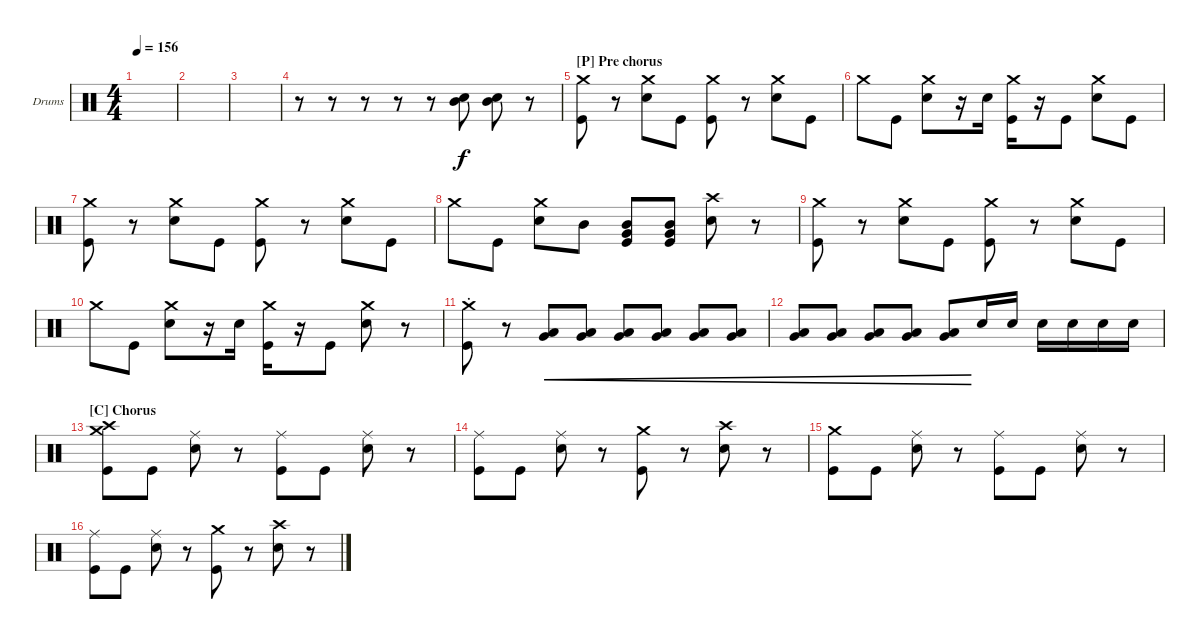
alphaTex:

\defaultSystemsLayout 4
\bracketExtendMode groupsimilarinstruments
\firstSystemTrackNameOrientation horizontal
\otherSystemsTrackNameOrientation horizontal
\track ("Drumkit" "Drums") {instrument percussion}
\staff {score}
\articulation defaults
\ts (4 4)
\tempo 156
\clef neutral
\ks c
|
|
|
r.8 r.8 r.8 r.8 r.8 ("Snare (hit) 2" "Mid Tom (hit)").8 ("Snare (hit) 2" "Mid Tom (hit)").8 r.8 |
\section ("P" "Pre chorus")
("Kick (hit)" "Crash medium (hit)").8 r.8 ("Snare (hit) 2" "Crash medium (hit)").8 "Kick (hit)".8 ("Kick (hit)" "Crash medium (hit)").8 r.8 ("Snare (hit) 2" "Crash medium (hit)").8 "Kick (hit)".8 |
"Crash medium (hit)".8 "Kick (hit)".8 ("Snare (hit) 2" "Crash medium (hit)").8 r.16 "Snare (hit) 2".16 ("Kick (hit)" "Crash medium (hit)").16 r.16 "Kick (hit)".8 ("Snare (hit) 2" "Crash medium (hit)").8 "Kick (hit)".8 |
("Kick (hit)" "Crash medium (hit)").8 r.8 ("Snare (hit) 2" "Crash medium (hit)").8 "Kick (hit)".8 ("Kick (hit)" "Crash medium (hit)").8 r.8 ("Snare (hit) 2" "Crash medium (hit)").8 "Kick (hit)".8 |
"Crash medium (hit)".8 "Kick (hit)".8 ("Snare (hit) 2" "Crash medium (hit)").8 "Mid Tom (hit)".8 ("Kick (hit)" "Mid Tom (hit)" "Very Low Tom (hit)").8 ("Kick (hit)" "Mid Tom (hit)" "Very Low Tom (hit)").8 ("Snare (hit) 2" "Crash high (hit)").8 r.8 |
("Kick (hit)" "Crash medium (hit)").8 r.8 ("Snare (hit) 2" "Crash medium (hit)").8 "Kick (hit)".8 ("Kick (hit)" "Crash medium (hit)").8 r.8 ("Snare (hit) 2" "Crash medium (hit)").8 "Kick (hit)".8 |
"Crash medium (hit)".8 "Kick (hit)".8 ("Snare (hit) 2" "Crash medium (hit)").8 r.16 "Snare (hit) 2".16 ("Kick (hit)" "Crash medium (hit)").16 r.16 "Kick (hit)".8 ("Snare (hit) 2" "Crash medium (hit)").8 r.8 |
("Kick (hit)" "Crash medium (hit)"{st}).8 r.8 ("Very Low Tom (hit)" "Low Tom (hit)").8{cre} ("Very Low Tom (hit)" "Low Tom (hit)").8{cre} ("Very Low Tom (hit)" "Low Tom (hit)").8{cre} ("Very Low Tom (hit)" "Low Tom (hit)").8{cre} ("Very Low Tom (hit)" "Low Tom (hit)").8{cre} ("Very Low Tom (hit)" "Low Tom (hit)").8{cre} |
("Very Low Tom (hit)" "Low Tom (hit)").8{cre} ("Very Low Tom (hit)" "Low Tom (hit)").8{cre} ("Very Low Tom (hit)" "Low Tom (hit)").8{cre} ("Very Low Tom (hit)" "Low Tom (hit)").8{cre} ("Very Low Tom (hit)" "Low Tom (hit)").8{cre} "Snare (hit) 2".16 "Snare (hit) 2".16 "Snare (hit) 2".16 "Snare (hit) 2".16 "Snare (hit) 2".16 "Snare (hit) 2".16 |
\section ("C" "Chorus")
("Kick (hit)" "Crash high (hit)" "Crash medium (hit)").8 "Kick (hit)".8 ("Snare (hit) 2" "Ride (middle)").8 r.8 ("Kick (hit)" "Ride (middle)").8 "Kick (hit)".8 ("Snare (hit) 2" "Ride (middle)").8 r.8 |
("Kick (hit)" "Ride (middle)").8 "Kick (hit)".8 ("Snare (hit) 2" "Ride (middle)").8 r.8 ("Kick (hit)" "Crash medium (hit)").8 r.8 ("Snare (hit) 2" "Crash high (hit)").8 r.8 |
("Kick (hit)" "Crash medium (hit)").8 "Kick (hit)".8 ("Snare (hit) 2" "Ride (middle)").8 r.8 ("Kick (hit)" "Ride (middle)").8 "Kick (hit)".8 ("Snare (hit) 2" "Ride (middle)").8 r.8 |
("Kick (hit)" "Ride (middle)").8 "Kick (hit)".8 ("Snare (hit) 2" "Ride (middle)").8 r.8 ("Kick (hit)" "Crash medium (hit)").8 r.8 ("Snare (hit) 2" "Crash high (hit)").8 r.8
